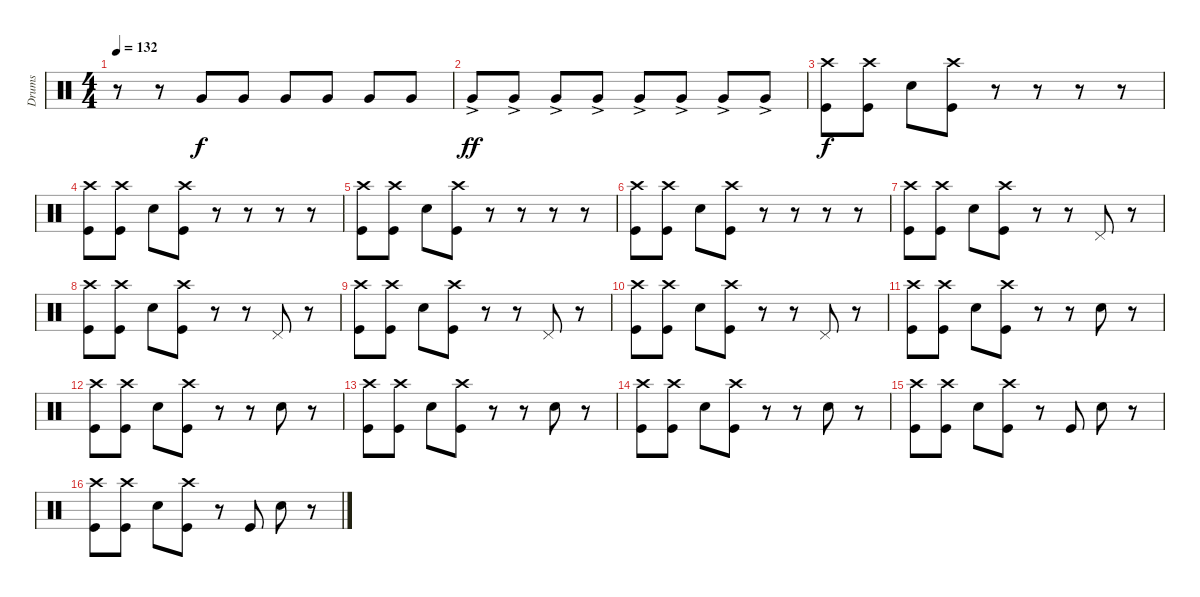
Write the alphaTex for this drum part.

\track ("Drums" "Drums") {instrument percussion}
\staff {score}
\articulation defaults
\ts (4 4)
\tempo 132
\clef neutral
\ks c
r.8{dy f} r.8 "Very Low Tom (hit)".8 "Very Low Tom (hit)".8 "Very Low Tom (hit)".8 "Very Low Tom (hit)".8 "Very Low Tom (hit)".8 "Very Low Tom (hit)".8 |
"Very Low Tom (hit)"{ac}.8{dy ff} "Very Low Tom (hit)"{ac}.8 "Very Low Tom (hit)"{ac}.8 "Very Low Tom (hit)"{ac}.8 "Very Low Tom (hit)"{ac}.8 "Very Low Tom (hit)"{ac}.8 "Very Low Tom (hit)"{ac}.8 "Very Low Tom (hit)"{ac}.8 |
("Crash high (hit)" "Kick (hit)").8{dy f} ("Crash high (hit)" "Kick (hit)").8 "Snare (hit) 2".8 ("Crash high (hit)" "Kick (hit)").8 r.8 r.8 r.8 r.8 |
("Crash high (hit)" "Kick (hit)").8 ("Crash high (hit)" "Kick (hit)").8 "Snare (hit) 2".8 ("Crash high (hit)" "Kick (hit)").8 r.8 r.8 r.8 r.8 |
("Crash high (hit)" "Kick (hit)").8 ("Crash high (hit)" "Kick (hit)").8 "Snare (hit) 2".8 ("Crash high (hit)" "Kick (hit)").8 r.8 r.8 r.8 r.8 |
("Crash high (hit)" "Kick (hit)").8 ("Crash high (hit)" "Kick (hit)").8 "Snare (hit) 2".8 ("Crash high (hit)" "Kick (hit)").8 r.8 r.8 r.8 r.8 |
("Crash high (hit)" "Kick (hit)").8 ("Crash high (hit)" "Kick (hit)").8 "Snare (hit) 2".8 ("Crash high (hit)" "Kick (hit)").8 r.8 r.8 "Pedal Hi-Hat (hit)".8 r.8 |
("Crash high (hit)" "Kick (hit)").8 ("Crash high (hit)" "Kick (hit)").8 "Snare (hit) 2".8 ("Crash high (hit)" "Kick (hit)").8 r.8 r.8 "Pedal Hi-Hat (hit)".8 r.8 |
("Crash high (hit)" "Kick (hit)").8 ("Crash high (hit)" "Kick (hit)").8 "Snare (hit) 2".8 ("Crash high (hit)" "Kick (hit)").8 r.8 r.8 "Pedal Hi-Hat (hit)".8 r.8 |
("Crash high (hit)" "Kick (hit)").8 ("Crash high (hit)" "Kick (hit)").8 "Snare (hit) 2".8 ("Crash high (hit)" "Kick (hit)").8 r.8 r.8 "Pedal Hi-Hat (hit)".8 r.8 |
("Crash high (hit)" "Kick (hit)").8 ("Crash high (hit)" "Kick (hit)").8 "Snare (hit) 2".8 ("Crash high (hit)" "Kick (hit)").8 r.8 r.8 "Snare (hit) 2".8 r.8 |
("Crash high (hit)" "Kick (hit)").8 ("Crash high (hit)" "Kick (hit)").8 "Snare (hit) 2".8 ("Crash high (hit)" "Kick (hit)").8 r.8 r.8 "Snare (hit) 2".8 r.8 |
("Crash high (hit)" "Kick (hit)").8 ("Crash high (hit)" "Kick (hit)").8 "Snare (hit) 2".8 ("Crash high (hit)" "Kick (hit)").8 r.8 r.8 "Snare (hit) 2".8 r.8 |
("Crash high (hit)" "Kick (hit)").8 ("Crash high (hit)" "Kick (hit)").8 "Snare (hit) 2".8 ("Crash high (hit)" "Kick (hit)").8 r.8 r.8 "Snare (hit) 2".8 r.8 |
("Crash high (hit)" "Kick (hit)").8 ("Crash high (hit)" "Kick (hit)").8 "Snare (hit) 2".8 ("Crash high (hit)" "Kick (hit)").8 r.8 "Kick (hit)".8 "Snare (hit) 2".8 r.8 |
("Crash high (hit)" "Kick (hit)").8 ("Crash high (hit)" "Kick (hit)").8 "Snare (hit) 2".8 ("Crash high (hit)" "Kick (hit)").8 r.8 "Kick (hit)".8 "Snare (hit) 2".8 r.8
